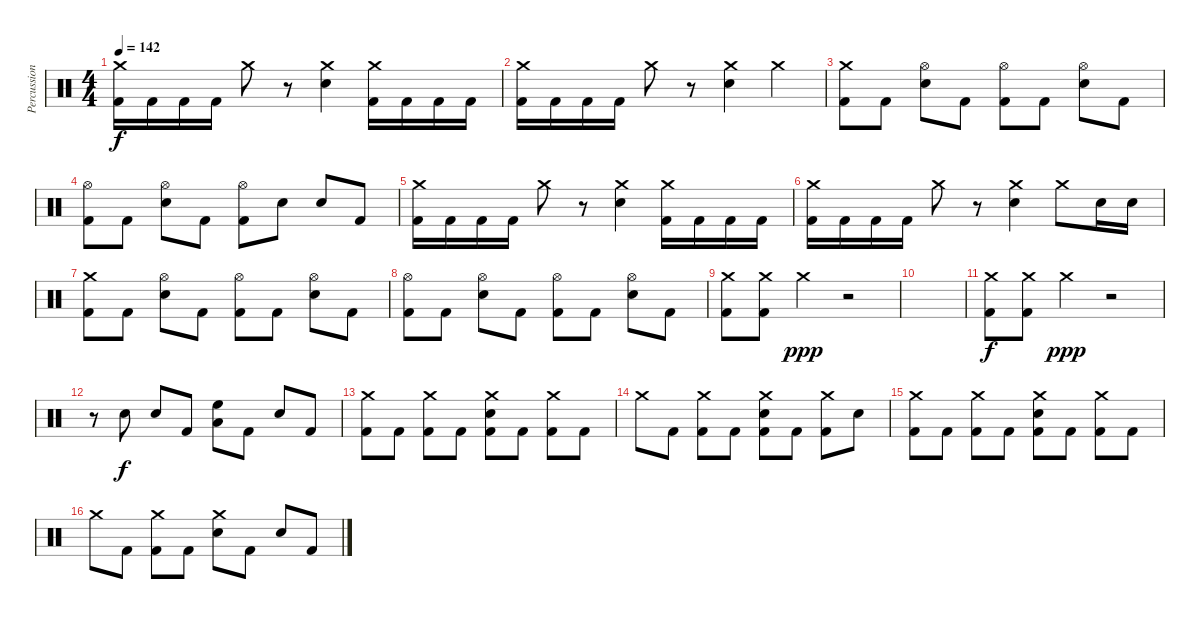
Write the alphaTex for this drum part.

\track ("Percussion" "Percussion") {instrument percussion}
\staff {score}
\articulation defaults
\ts (4 4)
\tempo 142
\clef neutral
\ks c
("Crash medium (hit)" "Kick (hit) 2").16{dy f} "Kick (hit) 2".16 "Kick (hit) 2".16 "Kick (hit) 2".16 "Crash medium (hit)".8 r.8 ("Crash medium (hit)" "Electric Snare (hit)").4 ("Crash medium (hit)" "Kick (hit) 2").16 "Kick (hit) 2".16 "Kick (hit) 2".16 "Kick (hit) 2".16 |
("Crash medium (hit)" "Kick (hit) 2").16 "Kick (hit) 2".16 "Kick (hit) 2".16 "Kick (hit) 2".16 "Crash medium (hit)".8 r.8 ("Crash medium (hit)" "Electric Snare (hit)").4 "Crash medium (hit)".4 |
("Crash medium (hit)" "Kick (hit) 2").8 "Kick (hit) 2".8 ("Hi-Hat (open)" "Electric Snare (hit)").8 "Kick (hit) 2".8 ("Hi-Hat (open)" "Kick (hit) 2").8 "Kick (hit) 2".8 ("Hi-Hat (open)" "Electric Snare (hit)").8 "Kick (hit) 2".8 |
("Hi-Hat (open)" "Kick (hit) 2").8 "Kick (hit) 2".8 ("Hi-Hat (open)" "Electric Snare (hit)").8 "Kick (hit) 2".8 ("Hi-Hat (open)" "Kick (hit) 2").8 "Electric Snare (hit)".8 "Electric Snare (hit)".8 "Kick (hit) 2".8 |
("Crash medium (hit)" "Kick (hit) 2").16 "Kick (hit) 2".16 "Kick (hit) 2".16 "Kick (hit) 2".16 "Crash medium (hit)".8 r.8 ("Crash medium (hit)" "Electric Snare (hit)").4 ("Crash medium (hit)" "Kick (hit) 2").16 "Kick (hit) 2".16 "Kick (hit) 2".16 "Kick (hit) 2".16 |
("Crash medium (hit)" "Kick (hit) 2").16 "Kick (hit) 2".16 "Kick (hit) 2".16 "Kick (hit) 2".16 "Crash medium (hit)".8 r.8 ("Crash medium (hit)" "Electric Snare (hit)").4 "Crash medium (hit)".8 "Electric Snare (hit)".16 "Electric Snare (hit)".16 |
("Crash medium (hit)" "Kick (hit) 2").8 "Kick (hit) 2".8 ("Hi-Hat (open)" "Electric Snare (hit)").8 "Kick (hit) 2".8 ("Hi-Hat (open)" "Kick (hit) 2").8 "Kick (hit) 2".8 ("Hi-Hat (open)" "Electric Snare (hit)").8 "Kick (hit) 2".8 |
("Hi-Hat (open)" "Kick (hit) 2").8 "Kick (hit) 2".8 ("Hi-Hat (open)" "Electric Snare (hit)").8 "Kick (hit) 2".8 ("Hi-Hat (open)" "Kick (hit) 2").8 "Kick (hit) 2".8 ("Hi-Hat (open)" "Electric Snare (hit)").8 "Kick (hit) 2".8 |
("Crash medium (hit)" "Kick (hit) 2").8 ("Crash medium (hit)" "Kick (hit) 2").8 "Crash medium (hit)".4{dy ppp} r.2 |
|
("Crash medium (hit)" "Kick (hit) 2").8{dy f} ("Crash medium (hit)" "Kick (hit) 2").8 "Crash medium (hit)".4{dy ppp} r.2 |
r.8 "Electric Snare (hit)".8{dy f} "Electric Snare (hit)".8 "Kick (hit) 2".8 ("Low Floor Tom (hit)" "High Floor Tom (hit)").8 "Kick (hit) 2".8 "Electric Snare (hit)".8 "Kick (hit) 2".8 |
("Crash medium (hit)" "Kick (hit) 2").8 "Kick (hit) 2".8 ("Crash medium (hit)" "Kick (hit) 2").8 "Kick (hit) 2".8 ("Crash medium (hit)" "Electric Snare (hit)" "Kick (hit) 2").8 "Kick (hit) 2".8 ("Crash medium (hit)" "Kick (hit) 2").8 "Kick (hit) 2".8 |
"Crash medium (hit)".8 "Kick (hit) 2".8 ("Crash medium (hit)" "Kick (hit) 2").8 "Kick (hit) 2".8 ("Crash medium (hit)" "Electric Snare (hit)" "Kick (hit) 2").8 "Kick (hit) 2".8 ("Crash medium (hit)" "Kick (hit) 2").8 "Electric Snare (hit)".8 |
("Crash medium (hit)" "Kick (hit) 2").8 "Kick (hit) 2".8 ("Crash medium (hit)" "Kick (hit) 2").8 "Kick (hit) 2".8 ("Crash medium (hit)" "Electric Snare (hit)" "Kick (hit) 2").8 "Kick (hit) 2".8 ("Crash medium (hit)" "Kick (hit) 2").8 "Kick (hit) 2".8 |
"Crash medium (hit)".8 "Kick (hit) 2".8 ("Crash medium (hit)" "Kick (hit) 2").8 "Kick (hit) 2".8 ("Crash medium (hit)" "Electric Snare (hit)").8 "Kick (hit) 2".8 "Electric Snare (hit)".8 "Kick (hit) 2".8
